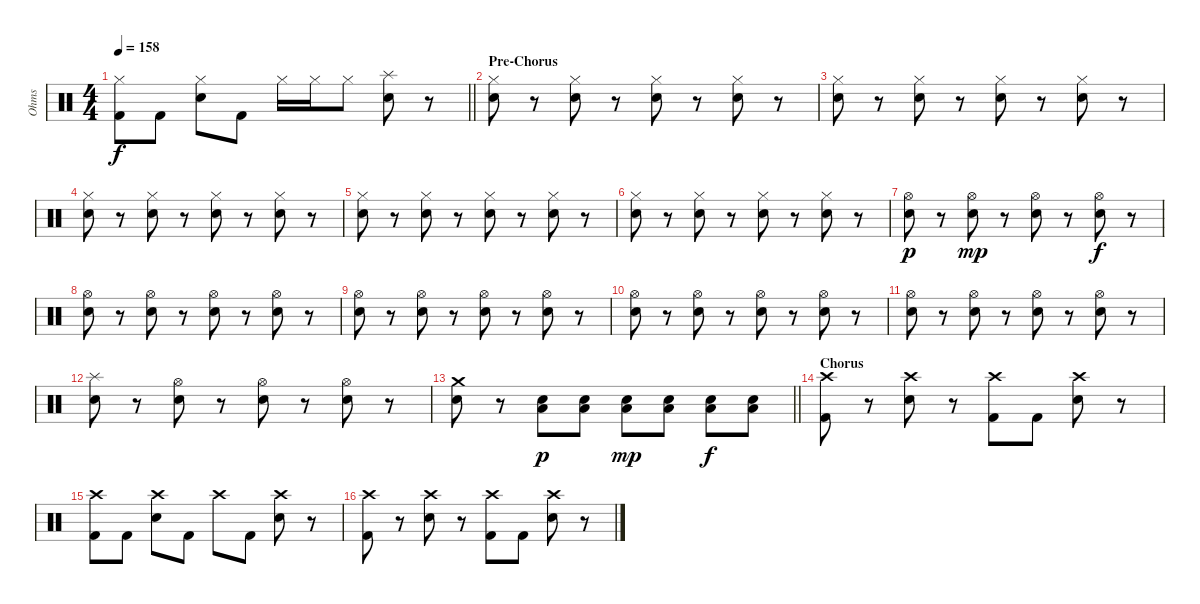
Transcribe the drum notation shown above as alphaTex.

\track ("Ohms" "Ohms") {instrument percussion}
\staff {score}
\articulation defaults
\ts (4 4)
\tempo 158
\clef neutral
\barLineRight lightlight
\ks c
("Hi-Hat (closed)" "Kick (hit) 2").8{dy f} "Kick (hit) 2".8 ("Hi-Hat (closed)" "Snare (hit) 2").8 "Kick (hit) 2".8 "Hi-Hat (closed)".16 "Hi-Hat (closed)".16 "Hi-Hat (closed)".8 ("Splash (hit)" "Snare (hit) 2").8 r.8 |
\section ("" "Pre-Chorus")
("Hi-Hat (closed)" "Snare (hit) 2").8 r.8 ("Hi-Hat (closed)" "Snare (hit) 2").8 r.8 ("Hi-Hat (closed)" "Snare (hit) 2").8 r.8 ("Hi-Hat (closed)" "Snare (hit) 2").8 r.8 |
("Hi-Hat (closed)" "Snare (hit) 2").8 r.8 ("Hi-Hat (closed)" "Snare (hit) 2").8 r.8 ("Hi-Hat (closed)" "Snare (hit) 2").8 r.8 ("Hi-Hat (closed)" "Snare (hit) 2").8 r.8 |
("Hi-Hat (closed)" "Snare (hit) 2").8 r.8 ("Hi-Hat (closed)" "Snare (hit) 2").8 r.8 ("Hi-Hat (closed)" "Snare (hit) 2").8 r.8 ("Hi-Hat (closed)" "Snare (hit) 2").8 r.8 |
("Hi-Hat (closed)" "Snare (hit) 2").8 r.8 ("Hi-Hat (closed)" "Snare (hit) 2").8 r.8 ("Hi-Hat (closed)" "Snare (hit) 2").8 r.8 ("Hi-Hat (closed)" "Snare (hit) 2").8 r.8 |
("Hi-Hat (closed)" "Snare (hit) 2").8 r.8 ("Hi-Hat (closed)" "Snare (hit) 2").8 r.8 ("Hi-Hat (closed)" "Snare (hit) 2").8 r.8 ("Hi-Hat (closed)" "Snare (hit) 2").8 r.8 |
("Hi-Hat (open)" "Snare (hit) 2").8{dy p} r.8 ("Hi-Hat (open)" "Snare (hit) 2").8{dy mp} r.8 ("Hi-Hat (open)" "Snare (hit) 2").8 r.8 ("Hi-Hat (open)" "Snare (hit) 2").8{dy f} r.8 |
("Hi-Hat (open)" "Snare (hit) 2").8 r.8 ("Hi-Hat (open)" "Snare (hit) 2").8 r.8 ("Hi-Hat (open)" "Snare (hit) 2").8 r.8 ("Hi-Hat (open)" "Snare (hit) 2").8 r.8 |
("Hi-Hat (open)" "Snare (hit) 2").8 r.8 ("Hi-Hat (open)" "Snare (hit) 2").8 r.8 ("Hi-Hat (open)" "Snare (hit) 2").8 r.8 ("Hi-Hat (open)" "Snare (hit) 2").8 r.8 |
("Hi-Hat (open)" "Snare (hit) 2").8 r.8 ("Hi-Hat (open)" "Snare (hit) 2").8 r.8 ("Hi-Hat (open)" "Snare (hit) 2").8 r.8 ("Hi-Hat (open)" "Snare (hit) 2").8 r.8 |
("Hi-Hat (open)" "Snare (hit) 2").8 r.8 ("Hi-Hat (open)" "Snare (hit) 2").8 r.8 ("Hi-Hat (open)" "Snare (hit) 2").8 r.8 ("Hi-Hat (open)" "Snare (hit) 2").8 r.8 |
("Splash (hit)" "Snare (hit) 2").8 r.8 ("Hi-Hat (open)" "Snare (hit) 2").8 r.8 ("Hi-Hat (open)" "Snare (hit) 2").8 r.8 ("Hi-Hat (open)" "Snare (hit) 2").8 r.8 |
\barLineRight lightlight
("Crash medium (hit)" "Snare (hit) 2").8 r.8 ("Snare (hit) 2" "Low Tom (hit)").8{dy p} ("Snare (hit) 2" "Low Tom (hit)").8 ("Snare (hit) 2" "Low Tom (hit)").8{dy mp} ("Snare (hit) 2" "Low Tom (hit)").8 ("Snare (hit) 2" "Low Tom (hit)").8{dy f} ("Snare (hit) 2" "Low Tom (hit)").8 |
\section ("" "Chorus")
("Crash high (hit)" "Kick (hit) 2").8 r.8 ("Crash high (hit)" "Snare (hit) 2").8 r.8 ("Crash high (hit)" "Kick (hit) 2").8 "Kick (hit) 2".8 ("Crash high (hit)" "Snare (hit) 2").8 r.8 |
("Crash high (hit)" "Kick (hit) 2").8 "Kick (hit) 2".8 ("Crash high (hit)" "Snare (hit) 2").8 "Kick (hit) 2".8 "Crash high (hit)".8 "Kick (hit) 2".8 ("Crash high (hit)" "Snare (hit) 2").8 r.8 |
("Crash high (hit)" "Kick (hit) 2").8 r.8 ("Crash high (hit)" "Snare (hit) 2").8 r.8 ("Crash high (hit)" "Kick (hit) 2").8 "Kick (hit) 2".8 ("Crash high (hit)" "Snare (hit) 2").8 r.8
